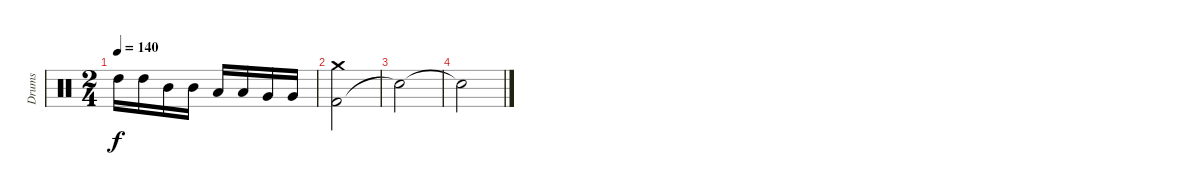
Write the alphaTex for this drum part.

\track ("Drums" "Drums") {instrument percussion}
\staff {score}
\articulation defaults
\ts (2 4)
\tempo 140
\clef neutral
\ks c "High Tom (hit)".16{dy f} "High Tom (hit)".16 "Mid Tom (hit)".16 "Mid Tom (hit)".16 "Low Tom (hit)".16 "Low Tom (hit)".16 "Very Low Tom (hit)".16 "Very Low Tom (hit)".16
|
("Kick (hit) 2" "Crash medium (hit)").2 |
"Snare (hit)"{t}.2 |
"Snare (hit)"{t}.2
